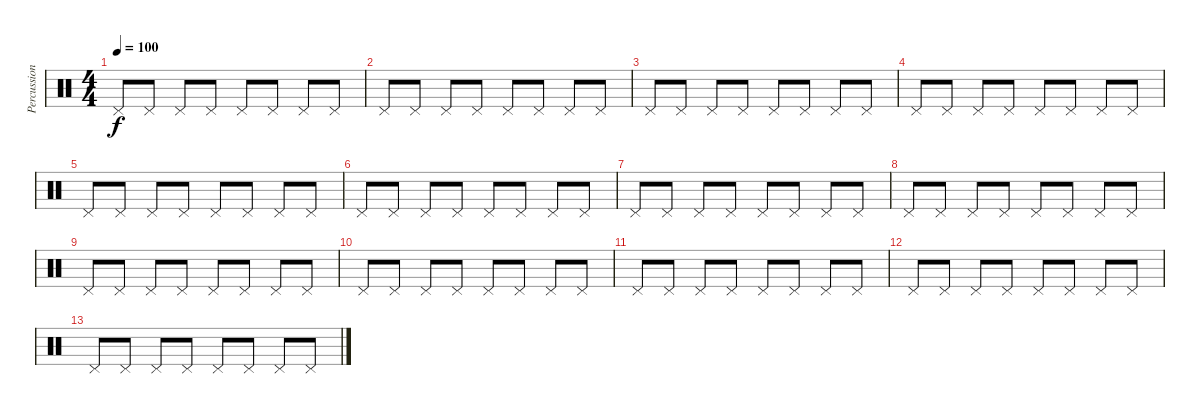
\track ("Percussion" "Percussion") {instrument percussion}
\staff {score}
\articulation defaults
\ts (4 4)
\tempo 100
\clef neutral
\ks c "Pedal Hi-Hat (hit)".8{dy f} "Pedal Hi-Hat (hit)".8 "Pedal Hi-Hat (hit)".8 "Pedal Hi-Hat (hit)".8 "Pedal Hi-Hat (hit)".8 "Pedal Hi-Hat (hit)".8 "Pedal Hi-Hat (hit)".8 "Pedal Hi-Hat (hit)".8
|
"Pedal Hi-Hat (hit)".8 "Pedal Hi-Hat (hit)".8 "Pedal Hi-Hat (hit)".8 "Pedal Hi-Hat (hit)".8 "Pedal Hi-Hat (hit)".8 "Pedal Hi-Hat (hit)".8 "Pedal Hi-Hat (hit)".8 "Pedal Hi-Hat (hit)".8 |
"Pedal Hi-Hat (hit)".8 "Pedal Hi-Hat (hit)".8 "Pedal Hi-Hat (hit)".8 "Pedal Hi-Hat (hit)".8 "Pedal Hi-Hat (hit)".8 "Pedal Hi-Hat (hit)".8 "Pedal Hi-Hat (hit)".8 "Pedal Hi-Hat (hit)".8 |
"Pedal Hi-Hat (hit)".8 "Pedal Hi-Hat (hit)".8 "Pedal Hi-Hat (hit)".8 "Pedal Hi-Hat (hit)".8 "Pedal Hi-Hat (hit)".8 "Pedal Hi-Hat (hit)".8 "Pedal Hi-Hat (hit)".8 "Pedal Hi-Hat (hit)".8 |
"Pedal Hi-Hat (hit)".8 "Pedal Hi-Hat (hit)".8 "Pedal Hi-Hat (hit)".8 "Pedal Hi-Hat (hit)".8 "Pedal Hi-Hat (hit)".8 "Pedal Hi-Hat (hit)".8 "Pedal Hi-Hat (hit)".8 "Pedal Hi-Hat (hit)".8 |
"Pedal Hi-Hat (hit)".8 "Pedal Hi-Hat (hit)".8 "Pedal Hi-Hat (hit)".8 "Pedal Hi-Hat (hit)".8 "Pedal Hi-Hat (hit)".8 "Pedal Hi-Hat (hit)".8 "Pedal Hi-Hat (hit)".8 "Pedal Hi-Hat (hit)".8 |
"Pedal Hi-Hat (hit)".8 "Pedal Hi-Hat (hit)".8 "Pedal Hi-Hat (hit)".8 "Pedal Hi-Hat (hit)".8 "Pedal Hi-Hat (hit)".8 "Pedal Hi-Hat (hit)".8 "Pedal Hi-Hat (hit)".8 "Pedal Hi-Hat (hit)".8 |
"Pedal Hi-Hat (hit)".8 "Pedal Hi-Hat (hit)".8 "Pedal Hi-Hat (hit)".8 "Pedal Hi-Hat (hit)".8 "Pedal Hi-Hat (hit)".8 "Pedal Hi-Hat (hit)".8 "Pedal Hi-Hat (hit)".8 "Pedal Hi-Hat (hit)".8 |
"Pedal Hi-Hat (hit)".8 "Pedal Hi-Hat (hit)".8 "Pedal Hi-Hat (hit)".8 "Pedal Hi-Hat (hit)".8 "Pedal Hi-Hat (hit)".8 "Pedal Hi-Hat (hit)".8 "Pedal Hi-Hat (hit)".8 "Pedal Hi-Hat (hit)".8 |
"Pedal Hi-Hat (hit)".8 "Pedal Hi-Hat (hit)".8 "Pedal Hi-Hat (hit)".8 "Pedal Hi-Hat (hit)".8 "Pedal Hi-Hat (hit)".8 "Pedal Hi-Hat (hit)".8 "Pedal Hi-Hat (hit)".8 "Pedal Hi-Hat (hit)".8 |
"Pedal Hi-Hat (hit)".8 "Pedal Hi-Hat (hit)".8 "Pedal Hi-Hat (hit)".8 "Pedal Hi-Hat (hit)".8 "Pedal Hi-Hat (hit)".8 "Pedal Hi-Hat (hit)".8 "Pedal Hi-Hat (hit)".8 "Pedal Hi-Hat (hit)".8 |
"Pedal Hi-Hat (hit)".8 "Pedal Hi-Hat (hit)".8 "Pedal Hi-Hat (hit)".8 "Pedal Hi-Hat (hit)".8 "Pedal Hi-Hat (hit)".8 "Pedal Hi-Hat (hit)".8 "Pedal Hi-Hat (hit)".8 "Pedal Hi-Hat (hit)".8 |
"Pedal Hi-Hat (hit)".8 "Pedal Hi-Hat (hit)".8 "Pedal Hi-Hat (hit)".8 "Pedal Hi-Hat (hit)".8 "Pedal Hi-Hat (hit)".8 "Pedal Hi-Hat (hit)".8 "Pedal Hi-Hat (hit)".8 "Pedal Hi-Hat (hit)".8
